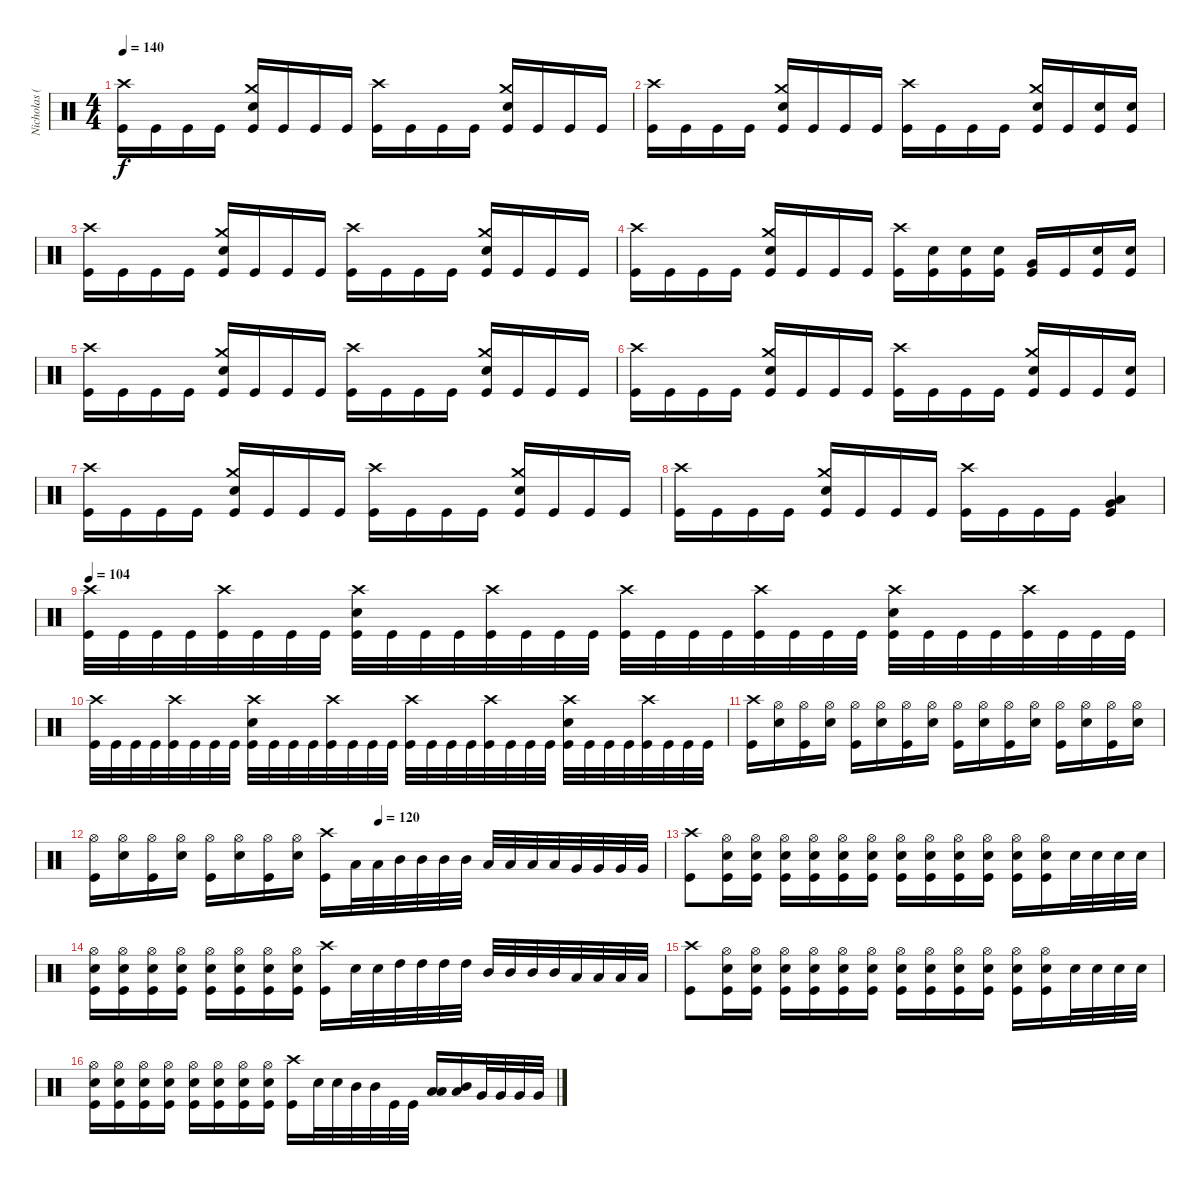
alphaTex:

\track ("Nicholas (Drums)" "Nicholas (") {instrument percussion}
\staff {score}
\articulation defaults
\ts (4 4)
\tempo 140
\clef neutral
\ks c
("Crash high (hit)" "Kick (hit)").16{dy f} "Kick (hit)".16 "Kick (hit)".16 "Kick (hit)".16 ("Crash medium (hit)" "Electric Snare (hit)" "Kick (hit)").16 "Kick (hit)".16 "Kick (hit)".16 "Kick (hit)".16 ("Crash high (hit)" "Kick (hit)").16 "Kick (hit)".16 "Kick (hit)".16 "Kick (hit)".16 ("Crash medium (hit)" "Electric Snare (hit)" "Kick (hit)").16 "Kick (hit)".16 "Kick (hit)".16 "Kick (hit)".16 |
("Crash high (hit)" "Kick (hit)").16 "Kick (hit)".16 "Kick (hit)".16 "Kick (hit)".16 ("Crash medium (hit)" "Electric Snare (hit)" "Kick (hit)").16 "Kick (hit)".16 "Kick (hit)".16 "Kick (hit)".16 ("Crash high (hit)" "Kick (hit)").16 "Kick (hit)".16 "Kick (hit)".16 "Kick (hit)".16 ("Crash medium (hit)" "Electric Snare (hit)" "Kick (hit)").16 "Kick (hit)".16 ("Electric Snare (hit)" "Kick (hit)").16 ("Electric Snare (hit)" "Kick (hit)").16 |
("Crash high (hit)" "Kick (hit)").16 "Kick (hit)".16 "Kick (hit)".16 "Kick (hit)".16 ("Crash medium (hit)" "Electric Snare (hit)" "Kick (hit)").16 "Kick (hit)".16 "Kick (hit)".16 "Kick (hit)".16 ("Crash high (hit)" "Kick (hit)").16 "Kick (hit)".16 "Kick (hit)".16 "Kick (hit)".16 ("Crash medium (hit)" "Electric Snare (hit)" "Kick (hit)").16 "Kick (hit)".16 "Kick (hit)".16 "Kick (hit)".16 |
("Crash high (hit)" "Kick (hit)").16 "Kick (hit)".16 "Kick (hit)".16 "Kick (hit)".16 ("Crash medium (hit)" "Electric Snare (hit)" "Kick (hit)").16 "Kick (hit)".16 "Kick (hit)".16 "Kick (hit)".16 ("Crash high (hit)" "Kick (hit)").16 ("Electric Snare (hit)" "Kick (hit)").16 ("Electric Snare (hit)" "Kick (hit)").16 ("Electric Snare (hit)" "Kick (hit)").16 ("Very Low Tom (hit)" "Kick (hit)").16 "Kick (hit)".16 ("Electric Snare (hit)" "Kick (hit)").16 ("Electric Snare (hit)" "Kick (hit)").16 |
("Crash high (hit)" "Kick (hit)").16 "Kick (hit)".16 "Kick (hit)".16 "Kick (hit)".16 ("Crash medium (hit)" "Electric Snare (hit)" "Kick (hit)").16 "Kick (hit)".16 "Kick (hit)".16 "Kick (hit)".16 ("Crash high (hit)" "Kick (hit)").16 "Kick (hit)".16 "Kick (hit)".16 "Kick (hit)".16 ("Crash medium (hit)" "Electric Snare (hit)" "Kick (hit)").16 "Kick (hit)".16 "Kick (hit)".16 "Kick (hit)".16 |
("Crash high (hit)" "Kick (hit)").16 "Kick (hit)".16 "Kick (hit)".16 "Kick (hit)".16 ("Crash medium (hit)" "Electric Snare (hit)" "Kick (hit)").16 "Kick (hit)".16 "Kick (hit)".16 "Kick (hit)".16 ("Crash high (hit)" "Kick (hit)").16 "Kick (hit)".16 "Kick (hit)".16 "Kick (hit)".16 ("Crash medium (hit)" "Electric Snare (hit)" "Kick (hit)").16 "Kick (hit)".16 "Kick (hit)".16 ("Electric Snare (hit)" "Kick (hit)").16 |
("Crash high (hit)" "Kick (hit)").16 "Kick (hit)".16 "Kick (hit)".16 "Kick (hit)".16 ("Crash medium (hit)" "Electric Snare (hit)" "Kick (hit)").16 "Kick (hit)".16 "Kick (hit)".16 "Kick (hit)".16 ("Crash high (hit)" "Kick (hit)").16 "Kick (hit)".16 "Kick (hit)".16 "Kick (hit)".16 ("Crash medium (hit)" "Electric Snare (hit)" "Kick (hit)").16 "Kick (hit)".16 "Kick (hit)".16 "Kick (hit)".16 |
("Crash high (hit)" "Kick (hit)").16 "Kick (hit)".16 "Kick (hit)".16 "Kick (hit)".16 ("Crash medium (hit)" "Electric Snare (hit)" "Kick (hit)").16 "Kick (hit)".16 "Kick (hit)".16 "Kick (hit)".16 ("Crash high (hit)" "Kick (hit)").16 "Kick (hit)".16 "Kick (hit)".16 "Kick (hit)".16 ("Very Low Tom (hit)" "Low Tom (hit)" "Kick (hit)").4{bd 60} |
\tempo 104
("Crash high (hit)" "Kick (hit)").32 "Kick (hit)".32 "Kick (hit)".32 "Kick (hit)".32 ("Crash high (hit)" "Kick (hit)").32 "Kick (hit)".32 "Kick (hit)".32 "Kick (hit)".32 ("Crash high (hit)" "Electric Snare (hit)" "Kick (hit)").32 "Kick (hit)".32 "Kick (hit)".32 "Kick (hit)".32 ("Crash high (hit)" "Kick (hit)").32 "Kick (hit)".32 "Kick (hit)".32 "Kick (hit)".32 ("Crash high (hit)" "Kick (hit)").32 "Kick (hit)".32 "Kick (hit)".32 "Kick (hit)".32 ("Crash high (hit)" "Kick (hit)").32 "Kick (hit)".32 "Kick (hit)".32 "Kick (hit)".32 ("Crash high (hit)" "Electric Snare (hit)" "Kick (hit)").32 "Kick (hit)".32 "Kick (hit)".32 "Kick (hit)".32 ("Crash high (hit)" "Kick (hit)").32 "Kick (hit)".32 "Kick (hit)".32 "Kick (hit)".32 |
("Crash high (hit)" "Kick (hit)").32 "Kick (hit)".32 "Kick (hit)".32 "Kick (hit)".32 ("Crash high (hit)" "Kick (hit)").32 "Kick (hit)".32 "Kick (hit)".32 "Kick (hit)".32 ("Crash high (hit)" "Electric Snare (hit)" "Kick (hit)").32 "Kick (hit)".32 "Kick (hit)".32 "Kick (hit)".32 ("Crash high (hit)" "Kick (hit)").32 "Kick (hit)".32 "Kick (hit)".32 "Kick (hit)".32 ("Crash high (hit)" "Kick (hit)").32 "Kick (hit)".32 "Kick (hit)".32 "Kick (hit)".32 ("Crash high (hit)" "Kick (hit)").32 "Kick (hit)".32 "Kick (hit)".32 "Kick (hit)".32 ("Crash high (hit)" "Electric Snare (hit)" "Kick (hit)").32 "Kick (hit)".32 "Kick (hit)".32 "Kick (hit)".32 ("Crash high (hit)" "Kick (hit)").32 "Kick (hit)".32 "Kick (hit)".32 "Kick (hit)".32 |
("Crash high (hit)" "Kick (hit)").16 ("Hi-Hat (open)" "Electric Snare (hit)").16 ("Hi-Hat (open)" "Kick (hit)").16 ("Hi-Hat (open)" "Electric Snare (hit)").16 ("Hi-Hat (open)" "Kick (hit)").16 ("Hi-Hat (open)" "Electric Snare (hit)").16 ("Hi-Hat (open)" "Kick (hit)").16 ("Hi-Hat (open)" "Electric Snare (hit)").16 ("Hi-Hat (open)" "Kick (hit)").16 ("Hi-Hat (open)" "Electric Snare (hit)").16 ("Hi-Hat (open)" "Kick (hit)").16 ("Hi-Hat (open)" "Electric Snare (hit)").16 ("Hi-Hat (open)" "Kick (hit)").16 ("Hi-Hat (open)" "Electric Snare (hit)").16 ("Hi-Hat (open)" "Kick (hit)").16 ("Hi-Hat (open)" "Electric Snare (hit)").16 |
\tempo (120 0.5)
("Hi-Hat (open)" "Kick (hit)").16 ("Hi-Hat (open)" "Electric Snare (hit)").16 ("Hi-Hat (open)" "Kick (hit)").16 ("Hi-Hat (open)" "Electric Snare (hit)").16 ("Hi-Hat (open)" "Kick (hit)").16 ("Hi-Hat (open)" "Electric Snare (hit)").16 ("Hi-Hat (open)" "Kick (hit)").16 ("Hi-Hat (open)" "Electric Snare (hit)").16 ("Crash high (hit)" "Kick (hit)").16 "Low Tom (hit)".32 "Low Tom (hit)".32 "Mid Tom (hit)".32 "Mid Tom (hit)".32 "Mid Tom (hit)".32 "Mid Tom (hit)".32 "Low Tom (hit)".32 "Low Tom (hit)".32 "Low Tom (hit)".32 "Low Tom (hit)".32 "Very Low Tom (hit)".32 "Very Low Tom (hit)".32 "Very Low Tom (hit)".32 "Very Low Tom (hit)".32 |
("Crash high (hit)" "Kick (hit)").8 ("Hi-Hat (open)" "Electric Snare (hit)" "Kick (hit)").16 ("Hi-Hat (open)" "Electric Snare (hit)" "Kick (hit)").16 ("Hi-Hat (open)" "Electric Snare (hit)" "Kick (hit)").16 ("Hi-Hat (open)" "Electric Snare (hit)" "Kick (hit)").16 ("Hi-Hat (open)" "Electric Snare (hit)" "Kick (hit)").16 ("Hi-Hat (open)" "Electric Snare (hit)" "Kick (hit)").16 ("Hi-Hat (open)" "Electric Snare (hit)" "Kick (hit)").16 ("Hi-Hat (open)" "Electric Snare (hit)" "Kick (hit)").16 ("Hi-Hat (open)" "Electric Snare (hit)" "Kick (hit)").16 ("Hi-Hat (open)" "Electric Snare (hit)" "Kick (hit)").16 ("Hi-Hat (open)" "Electric Snare (hit)" "Kick (hit)").16 ("Hi-Hat (open)" "Electric Snare (hit)" "Kick (hit)").16 "Electric Snare (hit)".32 "Electric Snare (hit)".32 "Electric Snare (hit)".32 "Electric Snare (hit)".32 |
("Hi-Hat (open)" "Electric Snare (hit)" "Kick (hit)").16 ("Hi-Hat (open)" "Electric Snare (hit)" "Kick (hit)").16 ("Hi-Hat (open)" "Electric Snare (hit)" "Kick (hit)").16 ("Hi-Hat (open)" "Electric Snare (hit)" "Kick (hit)").16 ("Hi-Hat (open)" "Electric Snare (hit)" "Kick (hit)").16 ("Hi-Hat (open)" "Electric Snare (hit)" "Kick (hit)").16 ("Hi-Hat (open)" "Electric Snare (hit)" "Kick (hit)").16 ("Hi-Hat (open)" "Electric Snare (hit)" "Kick (hit)").16 ("Crash high (hit)" "Kick (hit)").16 "Electric Snare (hit)".32 "Electric Snare (hit)".32 "High Tom (hit)".32 "High Tom (hit)".32 "High Tom (hit)".32 "High Tom (hit)".32 "Mid Tom (hit)".32 "Mid Tom (hit)".32 "Mid Tom (hit)".32 "Mid Tom (hit)".32 "Low Tom (hit)".32 "Low Tom (hit)".32 "Low Tom (hit)".32 "Low Tom (hit)".32 |
("Crash high (hit)" "Kick (hit)").8 ("Hi-Hat (open)" "Electric Snare (hit)" "Kick (hit)").16 ("Hi-Hat (open)" "Electric Snare (hit)" "Kick (hit)").16 ("Hi-Hat (open)" "Electric Snare (hit)" "Kick (hit)").16 ("Hi-Hat (open)" "Electric Snare (hit)" "Kick (hit)").16 ("Hi-Hat (open)" "Electric Snare (hit)" "Kick (hit)").16 ("Hi-Hat (open)" "Electric Snare (hit)" "Kick (hit)").16 ("Hi-Hat (open)" "Electric Snare (hit)" "Kick (hit)").16 ("Hi-Hat (open)" "Electric Snare (hit)" "Kick (hit)").16 ("Hi-Hat (open)" "Electric Snare (hit)" "Kick (hit)").16 ("Hi-Hat (open)" "Electric Snare (hit)" "Kick (hit)").16 ("Hi-Hat (open)" "Electric Snare (hit)" "Kick (hit)").16 ("Hi-Hat (open)" "Electric Snare (hit)" "Kick (hit)").16 "Electric Snare (hit)".32 "Electric Snare (hit)".32 "Electric Snare (hit)".32 "Electric Snare (hit)".32 |
("Hi-Hat (open)" "Electric Snare (hit)" "Kick (hit)").16 ("Hi-Hat (open)" "Electric Snare (hit)" "Kick (hit)").16 ("Hi-Hat (open)" "Electric Snare (hit)" "Kick (hit)").16 ("Hi-Hat (open)" "Electric Snare (hit)" "Kick (hit)").16 ("Hi-Hat (open)" "Electric Snare (hit)" "Kick (hit)").16 ("Hi-Hat (open)" "Electric Snare (hit)" "Kick (hit)").16 ("Hi-Hat (open)" "Electric Snare (hit)" "Kick (hit)").16 ("Hi-Hat (open)" "Electric Snare (hit)" "Kick (hit)").16 ("Crash high (hit)" "Kick (hit)").16 "Electric Snare (hit)".32 "Electric Snare (hit)".32 "Mid Tom (hit)".32 "Mid Tom (hit)".32 "Kick (hit)".32 "Kick (hit)".32 ("Low Tom (hit)" "Low Floor Tom (hit)").16 ("Mid Tom (hit)" "Low Floor Tom (hit)").16 "Very Low Tom (hit)".32 "Very Low Tom (hit)".32 "Very Low Tom (hit)".32 "Very Low Tom (hit)".32
